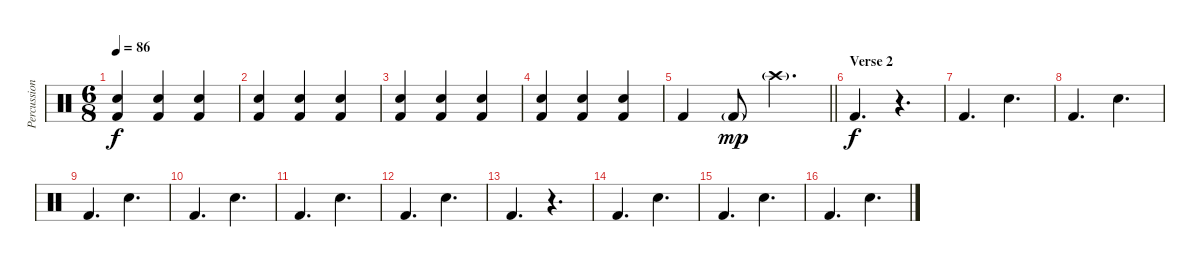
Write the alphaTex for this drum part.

\track ("Percussion" "Percussion") {instrument percussion}
\staff {score}
\articulation defaults
\ts (6 8)
\tempo 86
\clef neutral
\ks c
("Snare (hit) 2" "Kick (hit) 2").4{dy f} ("Snare (hit) 2" "Kick (hit) 2").4 ("Snare (hit) 2" "Kick (hit) 2").4 |
("Snare (hit) 2" "Kick (hit) 2").4 ("Snare (hit) 2" "Kick (hit) 2").4 ("Snare (hit) 2" "Kick (hit) 2").4 |
("Snare (hit) 2" "Kick (hit) 2").4 ("Snare (hit) 2" "Kick (hit) 2").4 ("Snare (hit) 2" "Kick (hit) 2").4 |
("Snare (hit) 2" "Kick (hit) 2").4 ("Snare (hit) 2" "Kick (hit) 2").4 ("Snare (hit) 2" "Kick (hit) 2").4 |
\barLineRight lightlight "Kick (hit) 2".4 "Kick (hit) 2"{g}.8{dy mp} "Crash high (hit)"{g}.4{d}
|
\section ("" "Verse 2")
"Kick (hit) 2".4{d dy f} r.4{d} |
"Kick (hit) 2".4{d} "Snare (hit) 2".4{d} |
"Kick (hit) 2".4{d} "Snare (hit) 2".4{d} |
"Kick (hit) 2".4{d} "Snare (hit) 2".4{d} |
"Kick (hit) 2".4{d} "Snare (hit) 2".4{d} |
"Kick (hit) 2".4{d} "Snare (hit) 2".4{d} |
"Kick (hit) 2".4{d} "Snare (hit) 2".4{d} |
"Kick (hit) 2".4{d} r.4{d} |
"Kick (hit) 2".4{d} "Snare (hit) 2".4{d} |
"Kick (hit) 2".4{d} "Snare (hit) 2".4{d} |
"Kick (hit) 2".4{d} "Snare (hit) 2".4{d}
